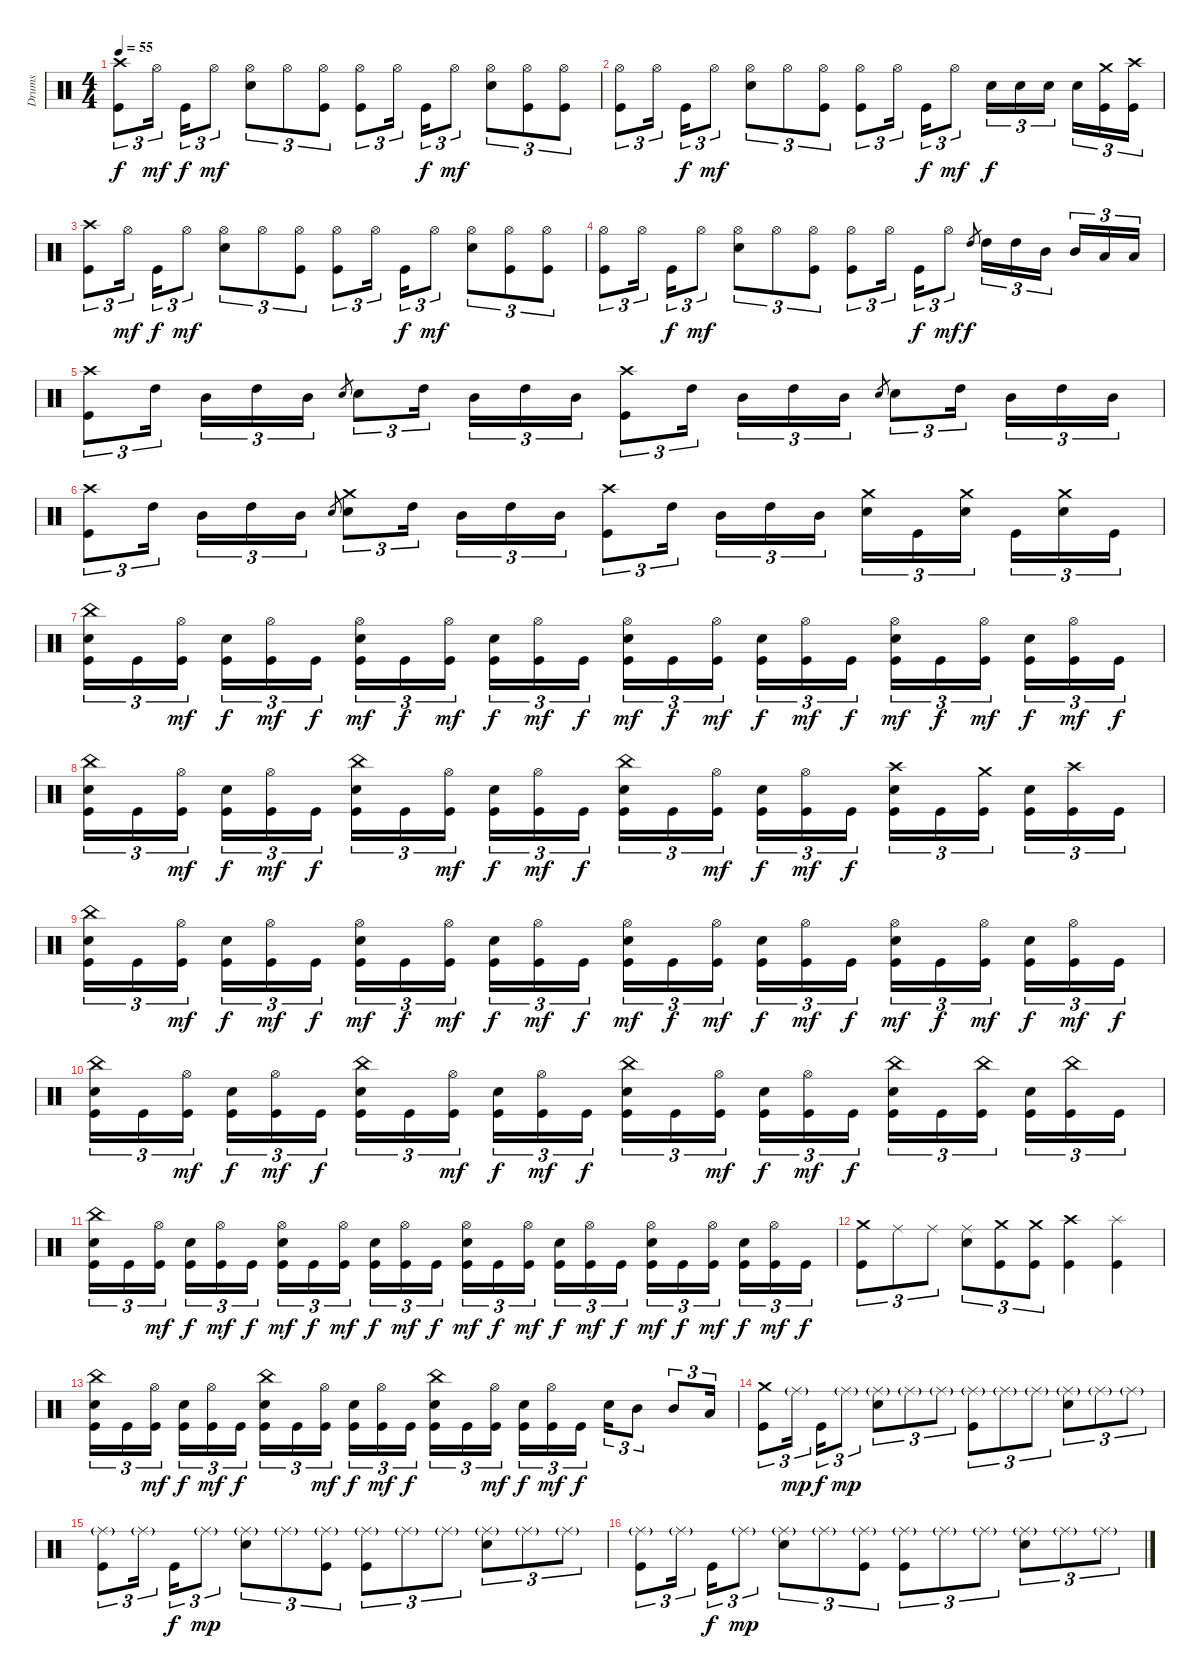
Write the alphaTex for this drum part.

\track ("Drums" "Drums") {instrument percussion}
\staff {score}
\articulation defaults
\ts (4 4)
\tempo 55
\clef neutral
\ks c
("Crash high (hit)" "Kick (hit)").8{tu (3 2) dy f} "Hi-Hat (open)".16{tu (3 2) dy mf} "Kick (hit)".16{tu (3 2) dy f} "Hi-Hat (open)".8{tu (3 2) dy mf} ("Hi-Hat (open)" "Electric Snare (hit)").8{tu (3 2)} "Hi-Hat (open)".8{tu (3 2)} ("Hi-Hat (open)" "Kick (hit)").8{tu (3 2)} ("Hi-Hat (open)" "Kick (hit)").8{tu (3 2)} "Hi-Hat (open)".16{tu (3 2)} "Kick (hit)".16{tu (3 2) dy f} "Hi-Hat (open)".8{tu (3 2) dy mf} ("Hi-Hat (open)" "Electric Snare (hit)").8{tu (3 2)} ("Hi-Hat (open)" "Kick (hit)").8{tu (3 2)} ("Hi-Hat (open)" "Kick (hit)").8{tu (3 2)} |
("Hi-Hat (open)" "Kick (hit)").8{tu (3 2)} "Hi-Hat (open)".16{tu (3 2)} "Kick (hit)".16{tu (3 2) dy f} "Hi-Hat (open)".8{tu (3 2) dy mf} ("Hi-Hat (open)" "Electric Snare (hit)").8{tu (3 2)} "Hi-Hat (open)".8{tu (3 2)} ("Hi-Hat (open)" "Kick (hit)").8{tu (3 2)} ("Hi-Hat (open)" "Kick (hit)").8{tu (3 2)} "Hi-Hat (open)".16{tu (3 2)} "Kick (hit)".16{tu (3 2) dy f} "Hi-Hat (open)".8{tu (3 2) dy mf} "Electric Snare (hit)".16{tu (3 2) dy f} "Electric Snare (hit)".16{tu (3 2)} "Electric Snare (hit)".16{tu (3 2)} "Electric Snare (hit)".16{tu (3 2)} ("Crash medium (hit)" "Kick (hit)").16{tu (3 2)} ("Crash high (hit)" "Kick (hit)").16{tu (3 2)} |
("Crash high (hit)" "Kick (hit)").8{tu (3 2)} "Hi-Hat (open)".16{tu (3 2) dy mf} "Kick (hit)".16{tu (3 2) dy f} "Hi-Hat (open)".8{tu (3 2) dy mf} ("Hi-Hat (open)" "Electric Snare (hit)").8{tu (3 2)} "Hi-Hat (open)".8{tu (3 2)} ("Hi-Hat (open)" "Kick (hit)").8{tu (3 2)} ("Hi-Hat (open)" "Kick (hit)").8{tu (3 2)} "Hi-Hat (open)".16{tu (3 2)} "Kick (hit)".16{tu (3 2) dy f} "Hi-Hat (open)".8{tu (3 2) dy mf} ("Hi-Hat (open)" "Electric Snare (hit)").8{tu (3 2)} ("Hi-Hat (open)" "Kick (hit)").8{tu (3 2)} ("Hi-Hat (open)" "Kick (hit)").8{tu (3 2)} |
("Hi-Hat (open)" "Kick (hit)").8{tu (3 2)} "Hi-Hat (open)".16{tu (3 2)} "Kick (hit)".16{tu (3 2) dy f} "Hi-Hat (open)".8{tu (3 2) dy mf} ("Hi-Hat (open)" "Electric Snare (hit)").8{tu (3 2)} "Hi-Hat (open)".8{tu (3 2)} ("Hi-Hat (open)" "Kick (hit)").8{tu (3 2)} ("Hi-Hat (open)" "Kick (hit)").8{tu (3 2)} "Hi-Hat (open)".16{tu (3 2)} "Kick (hit)".16{tu (3 2) dy f} "Hi-Hat (open)".8{tu (3 2) dy mf} "High Tom (hit)".8{gr dy f} "High Tom (hit)".16{tu (3 2)} "High Tom (hit)".16{tu (3 2)} "Mid Tom (hit)".16{tu (3 2)} "Mid Tom (hit)".16{tu (3 2)} "Low Tom (hit)".16{tu (3 2)} "Low Tom (hit)".16{tu (3 2)} |
("Crash high (hit)" "Kick (hit)").8{tu (3 2)} "High Tom (hit)".16{tu (3 2)} "Mid Tom (hit)".16{tu (3 2)} "High Tom (hit)".16{tu (3 2)} "Mid Tom (hit)".16{tu (3 2)} "Electric Snare (hit)".8{gr} "Electric Snare (hit)".8{tu (3 2)} "High Tom (hit)".16{tu (3 2)} "Mid Tom (hit)".16{tu (3 2)} "High Tom (hit)".16{tu (3 2)} "Mid Tom (hit)".16{tu (3 2)} ("Crash high (hit)" "Kick (hit)").8{tu (3 2)} "High Tom (hit)".16{tu (3 2)} "Mid Tom (hit)".16{tu (3 2)} "High Tom (hit)".16{tu (3 2)} "Mid Tom (hit)".16{tu (3 2)} "Electric Snare (hit)".8{gr} "Electric Snare (hit)".8{tu (3 2)} "High Tom (hit)".16{tu (3 2)} "Mid Tom (hit)".16{tu (3 2)} "High Tom (hit)".16{tu (3 2)} "Mid Tom (hit)".16{tu (3 2)} |
("Crash high (hit)" "Kick (hit)").8{tu (3 2)} "High Tom (hit)".16{tu (3 2)} "Mid Tom (hit)".16{tu (3 2)} "High Tom (hit)".16{tu (3 2)} "Mid Tom (hit)".16{tu (3 2)} "Electric Snare (hit)".8{gr} ("Crash medium (hit)" "Electric Snare (hit)").8{tu (3 2)} "High Tom (hit)".16{tu (3 2)} "Mid Tom (hit)".16{tu (3 2)} "High Tom (hit)".16{tu (3 2)} "Mid Tom (hit)".16{tu (3 2)} ("Crash high (hit)" "Kick (hit)").8{tu (3 2)} "High Tom (hit)".16{tu (3 2)} "Mid Tom (hit)".16{tu (3 2)} "High Tom (hit)".16{tu (3 2)} "Mid Tom (hit)".16{tu (3 2)} ("Crash medium (hit)" "Electric Snare (hit)").16{tu (3 2)} "Kick (hit)".16{tu (3 2)} ("Crash medium (hit)" "Electric Snare (hit)").16{tu (3 2)} "Kick (hit)".16{tu (3 2)} ("Crash medium (hit)" "Electric Snare (hit)").16{tu (3 2)} "Kick (hit)".16{tu (3 2)} |
("China (hit)" "Electric Snare (hit)" "Kick (hit)").16{tu (3 2)} "Kick (hit)".16{tu (3 2)} ("Hi-Hat (open)" "Kick (hit)").16{tu (3 2) dy mf} ("Electric Snare (hit)" "Kick (hit)").16{tu (3 2) dy f} ("Hi-Hat (open)" "Kick (hit)").16{tu (3 2) dy mf} "Kick (hit)".16{tu (3 2) dy f} ("Hi-Hat (open)" "Electric Snare (hit)" "Kick (hit)").16{tu (3 2) dy mf} "Kick (hit)".16{tu (3 2) dy f} ("Hi-Hat (open)" "Kick (hit)").16{tu (3 2) dy mf} ("Electric Snare (hit)" "Kick (hit)").16{tu (3 2) dy f} ("Hi-Hat (open)" "Kick (hit)").16{tu (3 2) dy mf} "Kick (hit)".16{tu (3 2) dy f} ("Hi-Hat (open)" "Electric Snare (hit)" "Kick (hit)").16{tu (3 2) dy mf} "Kick (hit)".16{tu (3 2) dy f} ("Hi-Hat (open)" "Kick (hit)").16{tu (3 2) dy mf} ("Electric Snare (hit)" "Kick (hit)").16{tu (3 2) dy f} ("Hi-Hat (open)" "Kick (hit)").16{tu (3 2) dy mf} "Kick (hit)".16{tu (3 2) dy f} ("Hi-Hat (open)" "Electric Snare (hit)" "Kick (hit)").16{tu (3 2) dy mf} "Kick (hit)".16{tu (3 2) dy f} ("Hi-Hat (open)" "Kick (hit)").16{tu (3 2) dy mf} ("Electric Snare (hit)" "Kick (hit)").16{tu (3 2) dy f} ("Hi-Hat (open)" "Kick (hit)").16{tu (3 2) dy mf} "Kick (hit)".16{tu (3 2) dy f} |
("China (hit)" "Electric Snare (hit)" "Kick (hit)").16{tu (3 2)} "Kick (hit)".16{tu (3 2)} ("Hi-Hat (open)" "Kick (hit)").16{tu (3 2) dy mf} ("Electric Snare (hit)" "Kick (hit)").16{tu (3 2) dy f} ("Hi-Hat (open)" "Kick (hit)").16{tu (3 2) dy mf} "Kick (hit)".16{tu (3 2) dy f} ("China (hit)" "Electric Snare (hit)" "Kick (hit)").16{tu (3 2)} "Kick (hit)".16{tu (3 2)} ("Hi-Hat (open)" "Kick (hit)").16{tu (3 2) dy mf} ("Electric Snare (hit)" "Kick (hit)").16{tu (3 2) dy f} ("Hi-Hat (open)" "Kick (hit)").16{tu (3 2) dy mf} "Kick (hit)".16{tu (3 2) dy f} ("China (hit)" "Electric Snare (hit)" "Kick (hit)").16{tu (3 2)} "Kick (hit)".16{tu (3 2)} ("Hi-Hat (open)" "Kick (hit)").16{tu (3 2) dy mf} ("Electric Snare (hit)" "Kick (hit)").16{tu (3 2) dy f} ("Hi-Hat (open)" "Kick (hit)").16{tu (3 2) dy mf} "Kick (hit)".16{tu (3 2) dy f} ("Crash high (hit)" "Electric Snare (hit)" "Kick (hit)").16{tu (3 2)} "Kick (hit)".16{tu (3 2)} ("Crash medium (hit)" "Kick (hit)").16{tu (3 2)} ("Electric Snare (hit)" "Kick (hit)").16{tu (3 2)} ("Crash high (hit)" "Kick (hit)").16{tu (3 2)} "Kick (hit)".16{tu (3 2)} |
("China (hit)" "Electric Snare (hit)" "Kick (hit)").16{tu (3 2)} "Kick (hit)".16{tu (3 2)} ("Hi-Hat (open)" "Kick (hit)").16{tu (3 2) dy mf} ("Electric Snare (hit)" "Kick (hit)").16{tu (3 2) dy f} ("Hi-Hat (open)" "Kick (hit)").16{tu (3 2) dy mf} "Kick (hit)".16{tu (3 2) dy f} ("Hi-Hat (open)" "Electric Snare (hit)" "Kick (hit)").16{tu (3 2) dy mf} "Kick (hit)".16{tu (3 2) dy f} ("Hi-Hat (open)" "Kick (hit)").16{tu (3 2) dy mf} ("Electric Snare (hit)" "Kick (hit)").16{tu (3 2) dy f} ("Hi-Hat (open)" "Kick (hit)").16{tu (3 2) dy mf} "Kick (hit)".16{tu (3 2) dy f} ("Hi-Hat (open)" "Electric Snare (hit)" "Kick (hit)").16{tu (3 2) dy mf} "Kick (hit)".16{tu (3 2) dy f} ("Hi-Hat (open)" "Kick (hit)").16{tu (3 2) dy mf} ("Electric Snare (hit)" "Kick (hit)").16{tu (3 2) dy f} ("Hi-Hat (open)" "Kick (hit)").16{tu (3 2) dy mf} "Kick (hit)".16{tu (3 2) dy f} ("Hi-Hat (open)" "Electric Snare (hit)" "Kick (hit)").16{tu (3 2) dy mf} "Kick (hit)".16{tu (3 2) dy f} ("Hi-Hat (open)" "Kick (hit)").16{tu (3 2) dy mf} ("Electric Snare (hit)" "Kick (hit)").16{tu (3 2) dy f} ("Hi-Hat (open)" "Kick (hit)").16{tu (3 2) dy mf} "Kick (hit)".16{tu (3 2) dy f} |
("China (hit)" "Electric Snare (hit)" "Kick (hit)").16{tu (3 2)} "Kick (hit)".16{tu (3 2)} ("Hi-Hat (open)" "Kick (hit)").16{tu (3 2) dy mf} ("Electric Snare (hit)" "Kick (hit)").16{tu (3 2) dy f} ("Hi-Hat (open)" "Kick (hit)").16{tu (3 2) dy mf} "Kick (hit)".16{tu (3 2) dy f} ("China (hit)" "Electric Snare (hit)" "Kick (hit)").16{tu (3 2)} "Kick (hit)".16{tu (3 2)} ("Hi-Hat (open)" "Kick (hit)").16{tu (3 2) dy mf} ("Electric Snare (hit)" "Kick (hit)").16{tu (3 2) dy f} ("Hi-Hat (open)" "Kick (hit)").16{tu (3 2) dy mf} "Kick (hit)".16{tu (3 2) dy f} ("China (hit)" "Electric Snare (hit)" "Kick (hit)").16{tu (3 2)} "Kick (hit)".16{tu (3 2)} ("Hi-Hat (open)" "Kick (hit)").16{tu (3 2) dy mf} ("Electric Snare (hit)" "Kick (hit)").16{tu (3 2) dy f} ("Hi-Hat (open)" "Kick (hit)").16{tu (3 2) dy mf} "Kick (hit)".16{tu (3 2) dy f} ("China (hit)" "Electric Snare (hit)" "Kick (hit)").16{tu (3 2)} "Kick (hit)".16{tu (3 2)} ("China (hit)" "Kick (hit)").16{tu (3 2)} ("Electric Snare (hit)" "Kick (hit)").16{tu (3 2)} ("China (hit)" "Kick (hit)").16{tu (3 2)} "Kick (hit)".16{tu (3 2)} |
("China (hit)" "Electric Snare (hit)" "Kick (hit)").16{tu (3 2)} "Kick (hit)".16{tu (3 2)} ("Hi-Hat (open)" "Kick (hit)").16{tu (3 2) dy mf} ("Electric Snare (hit)" "Kick (hit)").16{tu (3 2) dy f} ("Hi-Hat (open)" "Kick (hit)").16{tu (3 2) dy mf} "Kick (hit)".16{tu (3 2) dy f} ("Hi-Hat (open)" "Electric Snare (hit)" "Kick (hit)").16{tu (3 2) dy mf} "Kick (hit)".16{tu (3 2) dy f} ("Hi-Hat (open)" "Kick (hit)").16{tu (3 2) dy mf} ("Electric Snare (hit)" "Kick (hit)").16{tu (3 2) dy f} ("Hi-Hat (open)" "Kick (hit)").16{tu (3 2) dy mf} "Kick (hit)".16{tu (3 2) dy f} ("Hi-Hat (open)" "Electric Snare (hit)" "Kick (hit)").16{tu (3 2) dy mf} "Kick (hit)".16{tu (3 2) dy f} ("Hi-Hat (open)" "Kick (hit)").16{tu (3 2) dy mf} ("Electric Snare (hit)" "Kick (hit)").16{tu (3 2) dy f} ("Hi-Hat (open)" "Kick (hit)").16{tu (3 2) dy mf} "Kick (hit)".16{tu (3 2) dy f} ("Hi-Hat (open)" "Electric Snare (hit)" "Kick (hit)").16{tu (3 2) dy mf} "Kick (hit)".16{tu (3 2) dy f} ("Hi-Hat (open)" "Kick (hit)").16{tu (3 2) dy mf} ("Electric Snare (hit)" "Kick (hit)").16{tu (3 2) dy f} ("Hi-Hat (open)" "Kick (hit)").16{tu (3 2) dy mf} "Kick (hit)".16{tu (3 2) dy f} |
("Crash medium (hit)" "Kick (hit)").8{tu (3 2)} "Ride (middle)".8{tu (3 2)} "Ride (middle)".8{tu (3 2)} ("Ride (middle)" "Electric Snare (hit)").8{tu (3 2)} ("Crash medium (hit)" "Kick (hit)").8{tu (3 2)} ("Crash medium (hit)" "Kick (hit)").8{tu (3 2)} ("Crash high (hit)" "Kick (hit)").4 ("Splash (hit)" "Kick (hit)").4 |
("China (hit)" "Electric Snare (hit)" "Kick (hit)").16{tu (3 2)} "Kick (hit)".16{tu (3 2)} ("Hi-Hat (open)" "Kick (hit)").16{tu (3 2) dy mf} ("Electric Snare (hit)" "Kick (hit)").16{tu (3 2) dy f} ("Hi-Hat (open)" "Kick (hit)").16{tu (3 2) dy mf} "Kick (hit)".16{tu (3 2) dy f} ("China (hit)" "Electric Snare (hit)" "Kick (hit)").16{tu (3 2)} "Kick (hit)".16{tu (3 2)} ("Hi-Hat (open)" "Kick (hit)").16{tu (3 2) dy mf} ("Electric Snare (hit)" "Kick (hit)").16{tu (3 2) dy f} ("Hi-Hat (open)" "Kick (hit)").16{tu (3 2) dy mf} "Kick (hit)".16{tu (3 2) dy f} ("China (hit)" "Electric Snare (hit)" "Kick (hit)").16{tu (3 2)} "Kick (hit)".16{tu (3 2)} ("Hi-Hat (open)" "Kick (hit)").16{tu (3 2) dy mf} ("Electric Snare (hit)" "Kick (hit)").16{tu (3 2) dy f} ("Hi-Hat (open)" "Kick (hit)").16{tu (3 2) dy mf} "Kick (hit)".16{tu (3 2) dy f} "Electric Snare (hit)".16{tu (3 2)} "Mid Tom (hit)".8{tu (3 2)} "Mid Tom (hit)".8{tu (3 2)} "Low Tom (hit)".16{tu (3 2)} |
("Crash medium (hit)" "Kick (hit)").8{tu (3 2)} "Ride (middle)"{g}.16{tu (3 2) dy mp} "Kick (hit)".16{tu (3 2) dy f} "Ride (middle)"{g}.8{tu (3 2) dy mp} ("Ride (middle)"{g} "Electric Snare (hit)").8{tu (3 2)} "Ride (middle)"{g}.8{tu (3 2)} "Ride (middle)"{g}.8{tu (3 2)} ("Ride (middle)"{g} "Kick (hit)").8{tu (3 2)} "Ride (middle)"{g}.8{tu (3 2)} "Ride (middle)"{g}.8{tu (3 2)} ("Ride (middle)"{g} "Electric Snare (hit)").8{tu (3 2)} "Ride (middle)"{g}.8{tu (3 2)} "Ride (middle)"{g}.8{tu (3 2)} |
("Ride (middle)"{g} "Kick (hit)").8{tu (3 2)} "Ride (middle)"{g}.16{tu (3 2)} "Kick (hit)".16{tu (3 2) dy f} "Ride (middle)"{g}.8{tu (3 2) dy mp} ("Ride (middle)"{g} "Electric Snare (hit)").8{tu (3 2)} "Ride (middle)"{g}.8{tu (3 2)} ("Ride (middle)"{g} "Kick (hit)").8{tu (3 2)} ("Ride (middle)"{g} "Kick (hit)").8{tu (3 2)} "Ride (middle)"{g}.8{tu (3 2)} "Ride (middle)"{g}.8{tu (3 2)} ("Ride (middle)"{g} "Electric Snare (hit)").8{tu (3 2)} "Ride (middle)"{g}.8{tu (3 2)} "Ride (middle)"{g}.8{tu (3 2)} |
("Ride (middle)"{g} "Kick (hit)").8{tu (3 2)} "Ride (middle)"{g}.16{tu (3 2)} "Kick (hit)".16{tu (3 2) dy f} "Ride (middle)"{g}.8{tu (3 2) dy mp} ("Ride (middle)"{g} "Electric Snare (hit)").8{tu (3 2)} "Ride (middle)"{g}.8{tu (3 2)} ("Ride (middle)"{g} "Kick (hit)").8{tu (3 2)} ("Ride (middle)"{g} "Kick (hit)").8{tu (3 2)} "Ride (middle)"{g}.8{tu (3 2)} "Ride (middle)"{g}.8{tu (3 2)} ("Ride (middle)"{g} "Electric Snare (hit)").8{tu (3 2)} "Ride (middle)"{g}.8{tu (3 2)} "Ride (middle)"{g}.8{tu (3 2)}
